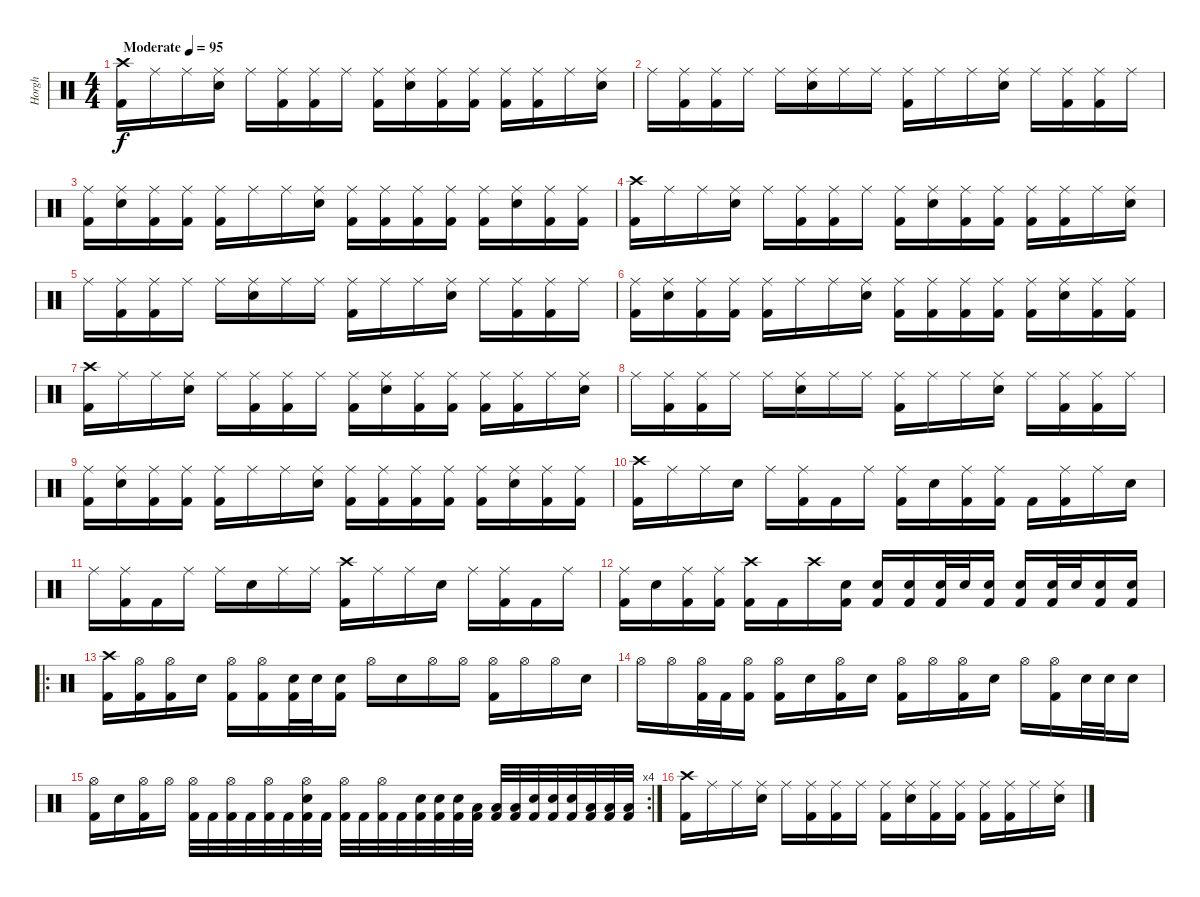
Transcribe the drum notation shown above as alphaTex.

\track ("Horgh" "Horgh") {instrument percussion}
\staff {score}
\articulation defaults
\ts (4 4)
\tempo (95 "Moderate")
\clef neutral
\ks c
("Crash high (hit)" "Kick (hit) 2").16{dy f} "Ride (middle)".16 "Ride (middle)".16 ("Ride (middle)" "Snare (hit) 2").16 "Ride (middle)".16 ("Ride (middle)" "Kick (hit) 2").16 ("Ride (middle)" "Kick (hit) 2").16 "Ride (middle)".16 ("Ride (middle)" "Kick (hit) 2").16 ("Ride (middle)" "Snare (hit) 2").16 ("Ride (middle)" "Kick (hit) 2").16 ("Ride (middle)" "Kick (hit) 2").16 ("Ride (middle)" "Kick (hit) 2").16 ("Ride (middle)" "Kick (hit) 2").16 "Ride (middle)".16 ("Ride (middle)" "Snare (hit) 2").16 |
"Ride (middle)".16 ("Ride (middle)" "Kick (hit) 2").16 ("Ride (middle)" "Kick (hit) 2").16 "Ride (middle)".16 "Ride (middle)".16 ("Ride (middle)" "Snare (hit) 2").16 "Ride (middle)".16 "Ride (middle)".16 ("Ride (middle)" "Kick (hit) 2").16 "Ride (middle)".16 "Ride (middle)".16 ("Ride (middle)" "Snare (hit) 2").16 "Ride (middle)".16 ("Ride (middle)" "Kick (hit) 2").16 ("Ride (middle)" "Kick (hit) 2").16 "Ride (middle)".16 |
("Ride (middle)" "Kick (hit) 2").16 ("Ride (middle)" "Snare (hit) 2").16 ("Ride (middle)" "Kick (hit) 2").16 ("Ride (middle)" "Kick (hit) 2").16 ("Ride (middle)" "Kick (hit) 2").16 "Ride (middle)".16 "Ride (middle)".16 ("Ride (middle)" "Snare (hit) 2").16 ("Ride (middle)" "Kick (hit) 2").16 ("Ride (middle)" "Kick (hit) 2").16 ("Ride (middle)" "Kick (hit) 2").16 ("Ride (middle)" "Kick (hit) 2").16 ("Ride (middle)" "Kick (hit) 2").16 ("Ride (middle)" "Snare (hit) 2").16 ("Ride (middle)" "Kick (hit) 2").16 ("Ride (middle)" "Kick (hit) 2").16 |
("Crash high (hit)" "Kick (hit) 2").16 "Ride (middle)".16 "Ride (middle)".16 ("Ride (middle)" "Snare (hit) 2").16 "Ride (middle)".16 ("Ride (middle)" "Kick (hit) 2").16 ("Ride (middle)" "Kick (hit) 2").16 "Ride (middle)".16 ("Ride (middle)" "Kick (hit) 2").16 ("Ride (middle)" "Snare (hit) 2").16 ("Ride (middle)" "Kick (hit) 2").16 ("Ride (middle)" "Kick (hit) 2").16 ("Ride (middle)" "Kick (hit) 2").16 ("Ride (middle)" "Kick (hit) 2").16 "Ride (middle)".16 ("Ride (middle)" "Snare (hit) 2").16 |
"Ride (middle)".16 ("Ride (middle)" "Kick (hit) 2").16 ("Ride (middle)" "Kick (hit) 2").16 "Ride (middle)".16 "Ride (middle)".16 ("Ride (middle)" "Snare (hit) 2").16 "Ride (middle)".16 "Ride (middle)".16 ("Ride (middle)" "Kick (hit) 2").16 "Ride (middle)".16 "Ride (middle)".16 ("Ride (middle)" "Snare (hit) 2").16 "Ride (middle)".16 ("Ride (middle)" "Kick (hit) 2").16 ("Ride (middle)" "Kick (hit) 2").16 "Ride (middle)".16 |
("Ride (middle)" "Kick (hit) 2").16 ("Ride (middle)" "Snare (hit) 2").16 ("Ride (middle)" "Kick (hit) 2").16 ("Ride (middle)" "Kick (hit) 2").16 ("Ride (middle)" "Kick (hit) 2").16 "Ride (middle)".16 "Ride (middle)".16 ("Ride (middle)" "Snare (hit) 2").16 ("Ride (middle)" "Kick (hit) 2").16 ("Ride (middle)" "Kick (hit) 2").16 ("Ride (middle)" "Kick (hit) 2").16 ("Ride (middle)" "Kick (hit) 2").16 ("Ride (middle)" "Kick (hit) 2").16 ("Ride (middle)" "Snare (hit) 2").16 ("Ride (middle)" "Kick (hit) 2").16 ("Ride (middle)" "Kick (hit) 2").16 |
("Crash high (hit)" "Kick (hit) 2").16 "Ride (middle)".16 "Ride (middle)".16 ("Ride (middle)" "Snare (hit) 2").16 "Ride (middle)".16 ("Ride (middle)" "Kick (hit) 2").16 ("Ride (middle)" "Kick (hit) 2").16 "Ride (middle)".16 ("Ride (middle)" "Kick (hit) 2").16 ("Ride (middle)" "Snare (hit) 2").16 ("Ride (middle)" "Kick (hit) 2").16 ("Ride (middle)" "Kick (hit) 2").16 ("Ride (middle)" "Kick (hit) 2").16 ("Ride (middle)" "Kick (hit) 2").16 "Ride (middle)".16 ("Ride (middle)" "Snare (hit) 2").16 |
"Ride (middle)".16 ("Ride (middle)" "Kick (hit) 2").16 ("Ride (middle)" "Kick (hit) 2").16 "Ride (middle)".16 "Ride (middle)".16 ("Ride (middle)" "Snare (hit) 2").16 "Ride (middle)".16 "Ride (middle)".16 ("Ride (middle)" "Kick (hit) 2").16 "Ride (middle)".16 "Ride (middle)".16 ("Ride (middle)" "Snare (hit) 2").16 "Ride (middle)".16 ("Ride (middle)" "Kick (hit) 2").16 ("Ride (middle)" "Kick (hit) 2").16 "Ride (middle)".16 |
("Ride (middle)" "Kick (hit) 2").16 ("Ride (middle)" "Snare (hit) 2").16 ("Ride (middle)" "Kick (hit) 2").16 ("Ride (middle)" "Kick (hit) 2").16 ("Ride (middle)" "Kick (hit) 2").16 "Ride (middle)".16 "Ride (middle)".16 ("Ride (middle)" "Snare (hit) 2").16 ("Ride (middle)" "Kick (hit) 2").16 ("Ride (middle)" "Kick (hit) 2").16 ("Ride (middle)" "Kick (hit) 2").16 ("Ride (middle)" "Kick (hit) 2").16 ("Ride (middle)" "Kick (hit) 2").16 ("Ride (middle)" "Snare (hit) 2").16 ("Ride (middle)" "Kick (hit) 2").16 ("Ride (middle)" "Kick (hit) 2").16 |
("Crash high (hit)" "Kick (hit) 2").16 "Ride (middle)".16 "Ride (middle)".16 "Snare (hit) 2".16 "Ride (middle)".16 ("Ride (middle)" "Kick (hit) 2").16 "Kick (hit) 2".16 "Ride (middle)".16 ("Ride (middle)" "Kick (hit) 2").16 "Snare (hit) 2".16 ("Ride (middle)" "Kick (hit) 2").16 ("Ride (middle)" "Kick (hit) 2").16 "Kick (hit) 2".16 ("Ride (middle)" "Kick (hit) 2").16 "Ride (middle)".16 "Snare (hit) 2".16 |
"Ride (middle)".16 ("Ride (middle)" "Kick (hit) 2").16 "Kick (hit) 2".16 "Ride (middle)".16 "Ride (middle)".16 "Snare (hit) 2".16 "Ride (middle)".16 "Ride (middle)".16 ("Crash high (hit)" "Kick (hit) 2").16 "Ride (middle)".16 "Ride (middle)".16 "Snare (hit) 2".16 "Ride (middle)".16 ("Ride (middle)" "Kick (hit) 2").16 "Kick (hit) 2".16 "Ride (middle)".16 |
("Ride (middle)" "Kick (hit) 2").16 "Snare (hit) 2".16 ("Ride (middle)" "Kick (hit) 2").16 ("Ride (middle)" "Kick (hit) 2").16 ("Crash high (hit)" "Kick (hit) 2").16 "Kick (hit) 2".16 "Crash high (hit)".16 ("Snare (hit) 2" "Kick (hit) 2").16 ("Snare (hit) 2" "Kick (hit) 2").16 ("Snare (hit) 2" "Kick (hit) 2").16 ("Snare (hit) 2" "Kick (hit) 2").32 "Snare (hit) 2".32 ("Snare (hit) 2" "Kick (hit) 2").16 ("Snare (hit) 2" "Kick (hit) 2").16 ("Snare (hit) 2" "Kick (hit) 2").32 "Snare (hit) 2".32 ("Snare (hit) 2" "Kick (hit) 2").16 ("Snare (hit) 2" "Kick (hit) 2").16 |
\ro
("Crash high (hit)" "Kick (hit) 2").16 ("Hi-Hat (open)" "Kick (hit) 2").16 ("Hi-Hat (open)" "Kick (hit) 2").16 "Snare (hit) 2".16 ("Hi-Hat (open)" "Kick (hit) 2").16 ("Hi-Hat (open)" "Kick (hit) 2").16 ("Snare (hit) 2" "Kick (hit) 2").32 "Snare (hit) 2".32 ("Snare (hit) 2" "Kick (hit) 2").16 "Hi-Hat (open)".16 "Snare (hit) 2".16 "Hi-Hat (open)".16 "Hi-Hat (open)".16 ("Hi-Hat (open)" "Kick (hit) 2").16 "Hi-Hat (open)".16 "Hi-Hat (open)".16 "Snare (hit) 2".16 |
"Hi-Hat (open)".16 "Hi-Hat (open)".16 ("Hi-Hat (open)" "Kick (hit) 2").32 "Kick (hit) 2".32 ("Hi-Hat (open)" "Kick (hit) 2").16 ("Hi-Hat (open)" "Kick (hit) 2").16 "Snare (hit) 2".16 ("Hi-Hat (open)" "Kick (hit) 2").16 "Snare (hit) 2".16 ("Hi-Hat (open)" "Kick (hit) 2").16 "Hi-Hat (open)".16 ("Hi-Hat (open)" "Kick (hit) 2").16 "Snare (hit) 2".16 "Hi-Hat (open)".16 ("Hi-Hat (open)" "Kick (hit) 2").16 "Snare (hit) 2".32 "Snare (hit) 2".32 "Snare (hit) 2".16 |
\rc 4
("Hi-Hat (open)" "Kick (hit) 2").16 "Snare (hit) 2".16 ("Hi-Hat (open)" "Kick (hit) 2").16 "Hi-Hat (open)".16 ("Hi-Hat (open)" "Kick (hit) 2").32 "Kick (hit) 2".32 ("Hi-Hat (open)" "Kick (hit) 2").32 "Kick (hit) 2".32 ("Hi-Hat (open)" "Kick (hit) 2").32 "Kick (hit) 2".32 ("Hi-Hat (open)" "Snare (hit) 2" "Kick (hit) 2").32 "Kick (hit) 2".32 ("Hi-Hat (open)" "Kick (hit) 2").32 "Kick (hit) 2".32 ("Hi-Hat (open)" "Kick (hit) 2").32 "Kick (hit) 2".32 ("Snare (hit) 2" "Kick (hit) 2").32 ("Snare (hit) 2" "Kick (hit) 2").32 ("Snare (hit) 2" "Kick (hit) 2").32 ("Low Tom (hit)" "Kick (hit) 2").32 ("Low Tom (hit)" "Kick (hit) 2").32 ("Low Tom (hit)" "Kick (hit) 2").32 ("Snare (hit) 2" "Kick (hit) 2").32 ("Snare (hit) 2" "Kick (hit) 2").32 ("Snare (hit) 2" "Kick (hit) 2").32 ("Low Tom (hit)" "Kick (hit) 2").32 ("Low Tom (hit)" "Kick (hit) 2").32 ("Low Tom (hit)" "Kick (hit) 2").32 |
("Crash high (hit)" "Kick (hit) 2").16 "Ride (middle)".16 "Ride (middle)".16 ("Ride (middle)" "Snare (hit) 2").16 "Ride (middle)".16 ("Ride (middle)" "Kick (hit) 2").16 ("Ride (middle)" "Kick (hit) 2").16 "Ride (middle)".16 ("Ride (middle)" "Kick (hit) 2").16 ("Ride (middle)" "Snare (hit) 2").16 ("Ride (middle)" "Kick (hit) 2").16 ("Ride (middle)" "Kick (hit) 2").16 ("Ride (middle)" "Kick (hit) 2").16 ("Ride (middle)" "Kick (hit) 2").16 "Ride (middle)".16 ("Ride (middle)" "Snare (hit) 2").16
